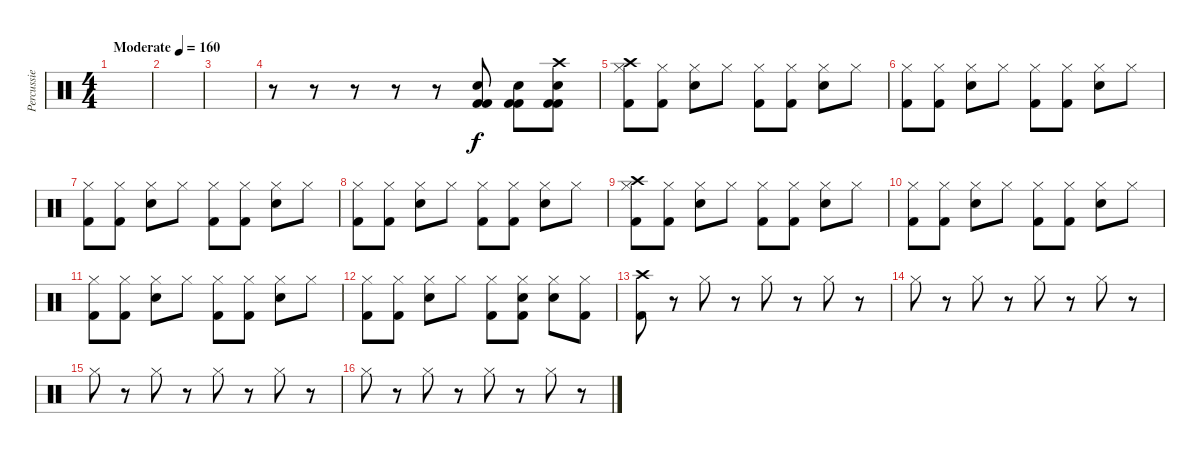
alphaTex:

\track ("Percussie" "Percussie") {instrument percussion}
\staff {score}
\articulation defaults
\ts (4 4)
\tempo (160 "Moderate")
\clef neutral
\ks c
|
|
|
r.8 r.8 r.8 r.8 r.8 ("Kick (hit) 2" "Kick (hit) 2" "Electric Snare (hit)").8 ("Kick (hit) 2" "Kick (hit) 2" "Electric Snare (hit)").8 ("Kick (hit) 2" "Kick (hit) 2" "Electric Snare (hit)" "Crash high (hit)").8 |
("Kick (hit) 2" "Crash high (hit)" "Hi-Hat (closed)").8 ("Kick (hit) 2" "Hi-Hat (closed)").8 ("Electric Snare (hit)" "Hi-Hat (closed)").8 "Hi-Hat (closed)".8 ("Kick (hit) 2" "Hi-Hat (closed)").8 ("Kick (hit) 2" "Hi-Hat (closed)").8 ("Electric Snare (hit)" "Hi-Hat (closed)").8 "Hi-Hat (closed)".8 |
("Kick (hit) 2" "Hi-Hat (closed)").8 ("Kick (hit) 2" "Hi-Hat (closed)").8 ("Electric Snare (hit)" "Hi-Hat (closed)").8 "Hi-Hat (closed)".8 ("Kick (hit) 2" "Hi-Hat (closed)").8 ("Kick (hit) 2" "Hi-Hat (closed)").8 ("Electric Snare (hit)" "Hi-Hat (closed)").8 "Hi-Hat (closed)".8 |
("Kick (hit) 2" "Hi-Hat (closed)").8 ("Kick (hit) 2" "Hi-Hat (closed)").8 ("Electric Snare (hit)" "Hi-Hat (closed)").8 "Hi-Hat (closed)".8 ("Kick (hit) 2" "Hi-Hat (closed)").8 ("Kick (hit) 2" "Hi-Hat (closed)").8 ("Electric Snare (hit)" "Hi-Hat (closed)").8 "Hi-Hat (closed)".8 |
("Kick (hit) 2" "Hi-Hat (closed)").8 ("Kick (hit) 2" "Hi-Hat (closed)").8 ("Electric Snare (hit)" "Hi-Hat (closed)").8 "Hi-Hat (closed)".8 ("Kick (hit) 2" "Hi-Hat (closed)").8 ("Kick (hit) 2" "Hi-Hat (closed)").8 ("Electric Snare (hit)" "Hi-Hat (closed)").8 "Hi-Hat (closed)".8 |
("Kick (hit) 2" "Crash high (hit)" "Hi-Hat (closed)").8 ("Kick (hit) 2" "Hi-Hat (closed)").8 ("Electric Snare (hit)" "Hi-Hat (closed)").8 "Hi-Hat (closed)".8 ("Kick (hit) 2" "Hi-Hat (closed)").8 ("Kick (hit) 2" "Hi-Hat (closed)").8 ("Electric Snare (hit)" "Hi-Hat (closed)").8 "Hi-Hat (closed)".8 |
("Kick (hit) 2" "Hi-Hat (closed)").8 ("Kick (hit) 2" "Hi-Hat (closed)").8 ("Electric Snare (hit)" "Hi-Hat (closed)").8 "Hi-Hat (closed)".8 ("Kick (hit) 2" "Hi-Hat (closed)").8 ("Kick (hit) 2" "Hi-Hat (closed)").8 ("Electric Snare (hit)" "Hi-Hat (closed)").8 "Hi-Hat (closed)".8 |
("Kick (hit) 2" "Hi-Hat (closed)").8 ("Kick (hit) 2" "Hi-Hat (closed)").8 ("Electric Snare (hit)" "Hi-Hat (closed)").8 "Hi-Hat (closed)".8 ("Kick (hit) 2" "Hi-Hat (closed)").8 ("Kick (hit) 2" "Hi-Hat (closed)").8 ("Electric Snare (hit)" "Hi-Hat (closed)").8 "Hi-Hat (closed)".8 |
("Kick (hit) 2" "Hi-Hat (closed)").8 ("Kick (hit) 2" "Hi-Hat (closed)").8 ("Electric Snare (hit)" "Hi-Hat (closed)").8 "Hi-Hat (closed)".8 ("Kick (hit) 2" "Hi-Hat (closed)").8 ("Kick (hit) 2" "Electric Snare (hit)" "Hi-Hat (closed)").8 ("Electric Snare (hit)" "Hi-Hat (closed)").8 ("Kick (hit) 2" "Hi-Hat (closed)").8 |
("Kick (hit) 2" "Crash high (hit)").8 r.8 "Hi-Hat (closed)".8 r.8 "Hi-Hat (closed)".8 r.8 "Hi-Hat (closed)".8 r.8 |
"Hi-Hat (closed)".8 r.8 "Hi-Hat (closed)".8 r.8 "Hi-Hat (closed)".8 r.8 "Hi-Hat (closed)".8 r.8 |
"Hi-Hat (closed)".8 r.8 "Hi-Hat (closed)".8 r.8 "Hi-Hat (closed)".8 r.8 "Hi-Hat (closed)".8 r.8 |
"Hi-Hat (closed)".8 r.8 "Hi-Hat (closed)".8 r.8 "Hi-Hat (closed)".8 r.8 "Hi-Hat (closed)".8 r.8
